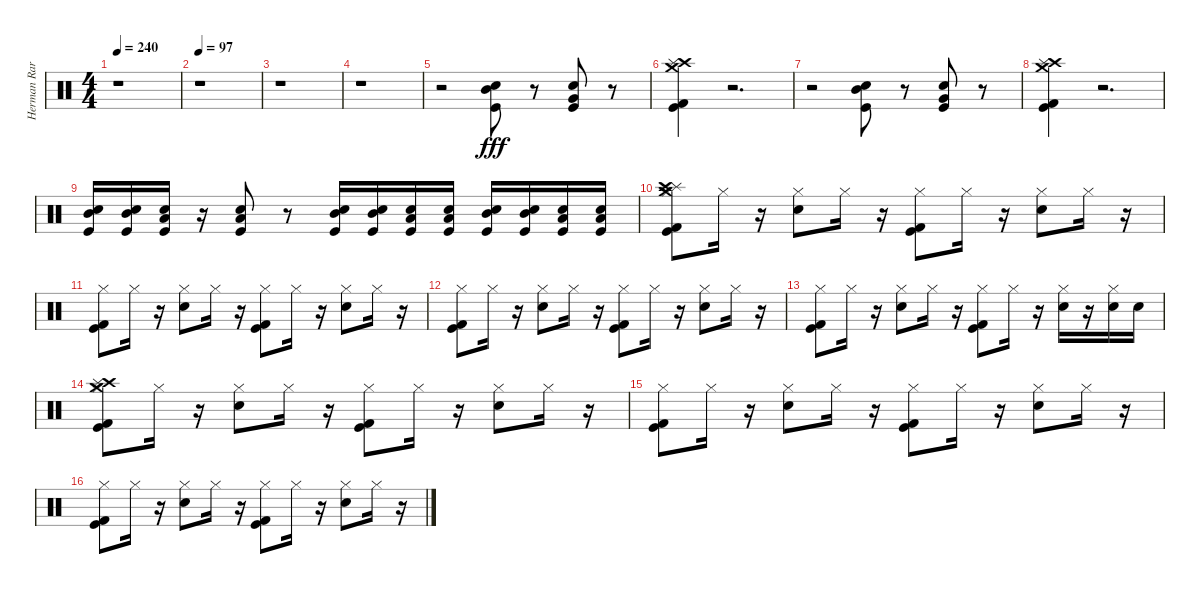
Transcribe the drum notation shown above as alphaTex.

\track ("Herman Rarebell - Drums and Percussion" "Herman Rar") {instrument percussion}
\staff {score}
\articulation defaults
\ts (4 4)
\tempo 240
\clef neutral
\ks c
r.1{dy fff} |
\tempo 97
r.1 |
r.1 |
r.1 |
r.2 ("Mid Tom (hit)" "Kick (hit)" "Electric Snare (hit)").8 r.8 ("Very Low Tom (hit)" "Kick (hit)" "Electric Snare (hit)").8 r.8 |
("Kick (hit) 2" "Kick (hit)" "Crash high (hit)" "Splash (hit)" "Crash medium (hit)").4 r.2{d} |
r.2 ("Mid Tom (hit)" "Kick (hit)" "Electric Snare (hit)").8 r.8 ("Very Low Tom (hit)" "Kick (hit)" "Electric Snare (hit)").8 r.8 |
("Kick (hit) 2" "Kick (hit)" "Crash high (hit)" "Splash (hit)" "Crash medium (hit)").4 r.2{d} |
("Mid Tom (hit)" "Kick (hit)" "Electric Snare (hit)").16 ("Mid Tom (hit)" "Kick (hit)" "Electric Snare (hit)").16 ("Low Tom (hit)" "Kick (hit)" "Electric Snare (hit)").16 r.16 ("Kick (hit)" "Low Floor Tom (hit)" "Electric Snare (hit)").8 r.8 ("Mid Tom (hit)" "Kick (hit)" "Electric Snare (hit)").16 ("Mid Tom (hit)" "Kick (hit)" "Electric Snare (hit)").16 ("Low Tom (hit)" "Kick (hit)" "Electric Snare (hit)").16 ("Kick (hit)" "Low Floor Tom (hit)" "Electric Snare (hit)").16 ("Mid Tom (hit)" "Kick (hit)" "Electric Snare (hit)").16 ("Mid Tom (hit)" "Kick (hit)" "Electric Snare (hit)").16 ("Low Tom (hit)" "Kick (hit)" "Electric Snare (hit)").16 ("Kick (hit)" "Low Floor Tom (hit)" "Electric Snare (hit)").16 |
("Kick (hit) 2" "Kick (hit)" "Crash medium (hit)" "Splash (hit)" "Crash high (hit)" "Hi-Hat (closed)").8 "Hi-Hat (closed)".16 r.16 ("Snare (hit) 2" "Hi-Hat (closed)").8 "Hi-Hat (closed)".16 r.16 ("Kick (hit) 2" "Kick (hit)" "Hi-Hat (closed)").8 "Hi-Hat (closed)".16 r.16 ("Snare (hit) 2" "Hi-Hat (closed)").8 "Hi-Hat (closed)".16 r.16 |
("Hi-Hat (closed)" "Kick (hit)" "Kick (hit) 2").8 "Hi-Hat (closed)".16 r.16 ("Snare (hit) 2" "Hi-Hat (closed)").8 "Hi-Hat (closed)".16 r.16 ("Kick (hit) 2" "Kick (hit)" "Hi-Hat (closed)").8 "Hi-Hat (closed)".16 r.16 ("Snare (hit) 2" "Hi-Hat (closed)").8 "Hi-Hat (closed)".16 r.16 |
("Hi-Hat (closed)" "Kick (hit)" "Kick (hit) 2").8 "Hi-Hat (closed)".16 r.16 ("Snare (hit) 2" "Hi-Hat (closed)").8 "Hi-Hat (closed)".16 r.16 ("Kick (hit) 2" "Kick (hit)" "Hi-Hat (closed)").8 "Hi-Hat (closed)".16 r.16 ("Snare (hit) 2" "Hi-Hat (closed)").8 "Hi-Hat (closed)".16 r.16 |
("Hi-Hat (closed)" "Kick (hit)" "Kick (hit) 2").8 "Hi-Hat (closed)".16 r.16 ("Snare (hit) 2" "Hi-Hat (closed)").8 "Hi-Hat (closed)".16 r.16 ("Kick (hit) 2" "Kick (hit)" "Hi-Hat (closed)").8 "Hi-Hat (closed)".16 r.16 ("Hi-Hat (closed)" "Snare (hit) 2").16 r.16 ("Hi-Hat (closed)" "Snare (hit) 2").16 "Snare (hit) 2".16 |
("Hi-Hat (closed)" "Crash high (hit)" "Splash (hit)" "Crash medium (hit)" "Kick (hit)" "Kick (hit) 2").8 "Hi-Hat (closed)".16 r.16 ("Snare (hit) 2" "Hi-Hat (closed)").8 "Hi-Hat (closed)".16 r.16 ("Kick (hit) 2" "Kick (hit)" "Hi-Hat (closed)").8 "Hi-Hat (closed)".16 r.16 ("Snare (hit) 2" "Hi-Hat (closed)").8 "Hi-Hat (closed)".16 r.16 |
("Hi-Hat (closed)" "Kick (hit)" "Kick (hit) 2").8 "Hi-Hat (closed)".16 r.16 ("Snare (hit) 2" "Hi-Hat (closed)").8 "Hi-Hat (closed)".16 r.16 ("Kick (hit) 2" "Kick (hit)" "Hi-Hat (closed)").8 "Hi-Hat (closed)".16 r.16 ("Snare (hit) 2" "Hi-Hat (closed)").8 "Hi-Hat (closed)".16 r.16 |
("Hi-Hat (closed)" "Kick (hit)" "Kick (hit) 2").8 "Hi-Hat (closed)".16 r.16 ("Snare (hit) 2" "Hi-Hat (closed)").8 "Hi-Hat (closed)".16 r.16 ("Kick (hit) 2" "Kick (hit)" "Hi-Hat (closed)").8 "Hi-Hat (closed)".16 r.16 ("Snare (hit) 2" "Hi-Hat (closed)").8 "Hi-Hat (closed)".16 r.16
